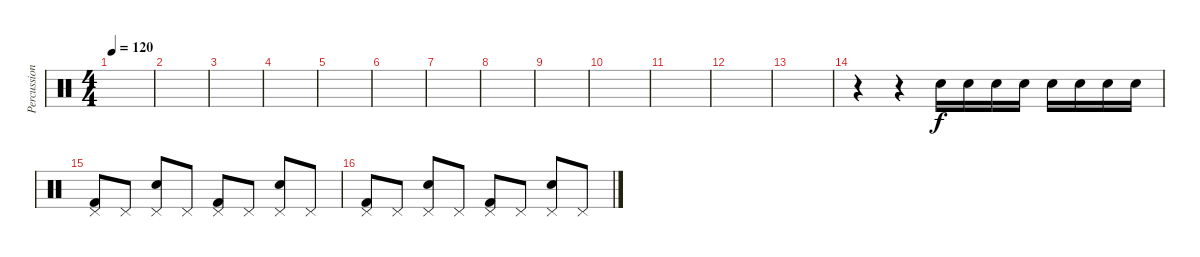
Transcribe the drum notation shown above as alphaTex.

\track ("Percussions" "Percussion") {instrument percussion}
\staff {score}
\articulation defaults
\ts (4 4)
\tempo 120
\clef neutral
\ks c
|
|
|
|
|
|
|
|
|
|
|
|
|
r.4 r.4 "Snare (hit) 2".16 "Snare (hit) 2".16 "Snare (hit) 2".16 "Snare (hit) 2".16 "Snare (hit) 2".16 "Snare (hit) 2".16 "Snare (hit) 2".16 "Snare (hit) 2".16 |
("Pedal Hi-Hat (hit)" "Kick (hit) 2").8 "Pedal Hi-Hat (hit)".8 ("Pedal Hi-Hat (hit)" "Snare (hit) 2").8 "Pedal Hi-Hat (hit)".8 ("Pedal Hi-Hat (hit)" "Kick (hit) 2").8 "Pedal Hi-Hat (hit)".8 ("Pedal Hi-Hat (hit)" "Snare (hit) 2").8 "Pedal Hi-Hat (hit)".8 |
("Pedal Hi-Hat (hit)" "Kick (hit) 2").8 "Pedal Hi-Hat (hit)".8 ("Pedal Hi-Hat (hit)" "Snare (hit) 2").8 "Pedal Hi-Hat (hit)".8 ("Pedal Hi-Hat (hit)" "Kick (hit) 2").8 "Pedal Hi-Hat (hit)".8 ("Pedal Hi-Hat (hit)" "Snare (hit) 2").8 "Pedal Hi-Hat (hit)".8
